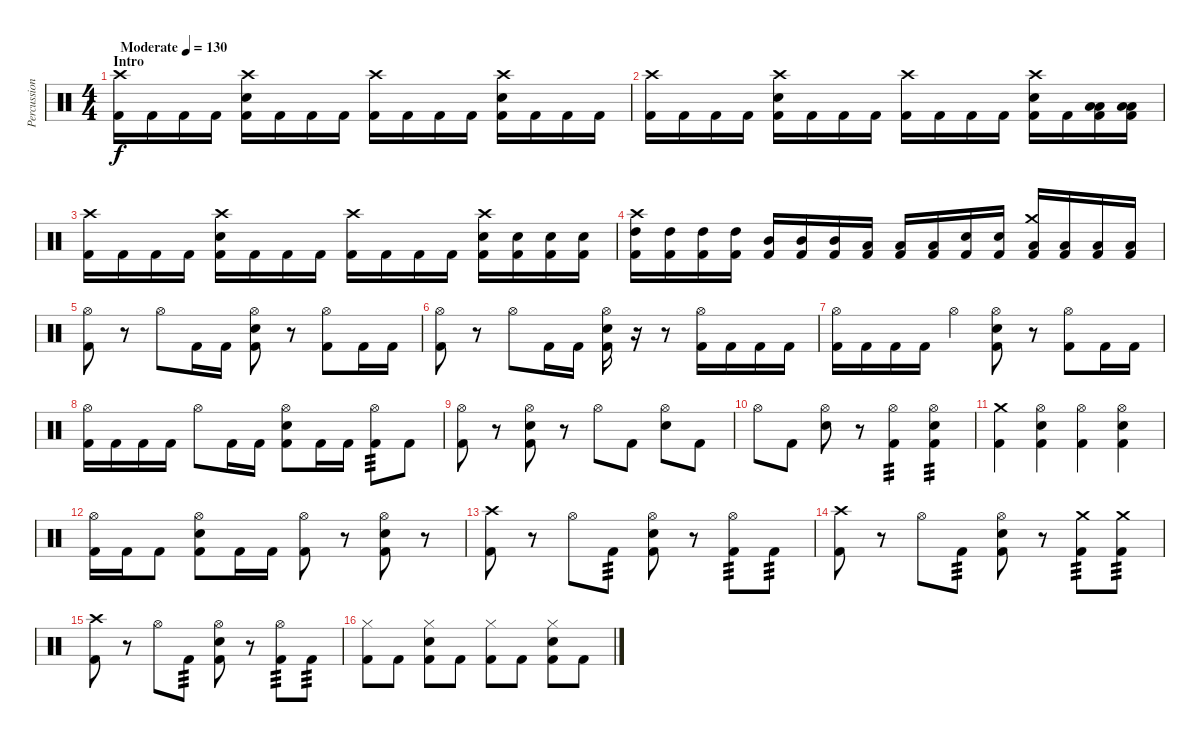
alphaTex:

\track ("Percussion" "Percussion") {instrument percussion}
\staff {score}
\articulation defaults
\ts (4 4)
\section ("" "Intro")
\tempo (130 "Moderate")
\clef neutral
\ks c
("Crash high (hit)" "Kick (hit) 2").16{dy f} "Kick (hit) 2".16 "Kick (hit) 2".16 "Kick (hit) 2".16 ("Crash high (hit)" "Electric Snare (hit)" "Kick (hit) 2").16 "Kick (hit) 2".16 "Kick (hit) 2".16 "Kick (hit) 2".16 ("Crash high (hit)" "Kick (hit) 2").16 "Kick (hit) 2".16 "Kick (hit) 2".16 "Kick (hit) 2".16 ("Crash high (hit)" "Electric Snare (hit)" "Kick (hit) 2").16 "Kick (hit) 2".16 "Kick (hit) 2".16 "Kick (hit) 2".16 |
("Crash high (hit)" "Kick (hit) 2").16 "Kick (hit) 2".16 "Kick (hit) 2".16 "Kick (hit) 2".16 ("Crash high (hit)" "Electric Snare (hit)" "Kick (hit) 2").16 "Kick (hit) 2".16 "Kick (hit) 2".16 "Kick (hit) 2".16 ("Crash high (hit)" "Kick (hit) 2").16 "Kick (hit) 2".16 "Kick (hit) 2".16 "Kick (hit) 2".16 ("Crash high (hit)" "Electric Snare (hit)" "Kick (hit) 2").16 "Kick (hit) 2".16 ("Low Tom (hit)" "Low Tom (hit)" "Kick (hit) 2").16 ("Low Tom (hit)" "Low Tom (hit)" "Kick (hit) 2").16 |
("Crash high (hit)" "Kick (hit) 2").16 "Kick (hit) 2".16 "Kick (hit) 2".16 "Kick (hit) 2".16 ("Crash high (hit)" "Electric Snare (hit)" "Kick (hit) 2").16 "Kick (hit) 2".16 "Kick (hit) 2".16 "Kick (hit) 2".16 ("Crash high (hit)" "Kick (hit) 2").16 "Kick (hit) 2".16 "Kick (hit) 2".16 "Kick (hit) 2".16 ("Crash high (hit)" "Electric Snare (hit)" "Kick (hit) 2").16 ("Electric Snare (hit)" "Kick (hit) 2").16 ("Electric Snare (hit)" "Kick (hit) 2").16 ("Electric Snare (hit)" "Kick (hit) 2").16 |
("Crash high (hit)" "High Tom (hit)" "Kick (hit) 2").16 ("High Tom (hit)" "Kick (hit) 2").16 ("High Tom (hit)" "Kick (hit) 2").16 ("High Tom (hit)" "Kick (hit) 2").16 ("Mid Tom (hit)" "Kick (hit) 2").16 ("Mid Tom (hit)" "Kick (hit) 2").16 ("Mid Tom (hit)" "Kick (hit) 2").16 ("Low Tom (hit)" "Kick (hit) 2").16 ("Low Tom (hit)" "Kick (hit) 2").16 ("Low Tom (hit)" "Kick (hit) 2").16 ("Electric Snare (hit)" "Kick (hit) 2").16 ("Electric Snare (hit)" "Kick (hit) 2").16 ("Crash medium (hit)" "Low Floor Tom (hit)" "Kick (hit) 2").16 ("Low Floor Tom (hit)" "Kick (hit) 2").16 ("Low Floor Tom (hit)" "Kick (hit) 2").16 ("Low Floor Tom (hit)" "Kick (hit) 2").16 |
("Hi-Hat (open)" "Kick (hit) 2").8 r.8 "Hi-Hat (open)".8 "Kick (hit) 2".16 "Kick (hit) 2".16 ("Hi-Hat (open)" "Electric Snare (hit)" "Kick (hit) 2").8 r.8 ("Hi-Hat (open)" "Kick (hit) 2").8 "Kick (hit) 2".16 "Kick (hit) 2".16 |
("Hi-Hat (open)" "Kick (hit) 2").8 r.8 "Hi-Hat (open)".8 "Kick (hit) 2".16 "Kick (hit) 2".16 ("Hi-Hat (open)" "Electric Snare (hit)" "Kick (hit) 2").16 r.16 r.8 ("Hi-Hat (open)" "Kick (hit) 2").16 "Kick (hit) 2".16 "Kick (hit) 2".16 "Kick (hit) 2".16 |
("Hi-Hat (open)" "Kick (hit) 2").16 "Kick (hit) 2".16 "Kick (hit) 2".16 "Kick (hit) 2".16 "Hi-Hat (open)".4 ("Hi-Hat (open)" "Electric Snare (hit)" "Kick (hit) 2").8 r.8 ("Hi-Hat (open)" "Kick (hit) 2").8 "Kick (hit) 2".16 "Kick (hit) 2".16 |
("Hi-Hat (open)" "Kick (hit) 2").16 "Kick (hit) 2".16 "Kick (hit) 2".16 "Kick (hit) 2".16 "Hi-Hat (open)".8 "Kick (hit) 2".16 "Kick (hit) 2".16 ("Hi-Hat (open)" "Electric Snare (hit)" "Kick (hit) 2").8 "Kick (hit) 2".16 "Kick (hit) 2".16 ("Hi-Hat (open)" "Kick (hit) 2").8{tp 3} "Kick (hit) 2".8 |
("Hi-Hat (open)" "Kick (hit) 2").8 r.8 ("Hi-Hat (open)" "Electric Snare (hit)" "Kick (hit) 2").8 r.8 "Hi-Hat (open)".8 "Kick (hit) 2".8 ("Hi-Hat (open)" "Electric Snare (hit)").8 "Kick (hit) 2".8 |
"Hi-Hat (open)".8 "Kick (hit) 2".8 ("Hi-Hat (open)" "Electric Snare (hit)").8 r.8 ("Hi-Hat (open)" "Kick (hit) 2").4{tp 3} ("Hi-Hat (open)" "Electric Snare (hit)" "Kick (hit) 2").4{tp 3} |
("Crash medium (hit)" "Kick (hit) 2").4 ("Hi-Hat (open)" "Electric Snare (hit)" "Kick (hit) 2").4 ("Hi-Hat (open)" "Kick (hit) 2").4 ("Hi-Hat (open)" "Electric Snare (hit)" "Kick (hit) 2").4 |
("Hi-Hat (open)" "Kick (hit) 2").16 "Kick (hit) 2".16 "Kick (hit) 2".8 ("Hi-Hat (open)" "Electric Snare (hit)" "Kick (hit) 2").8 "Kick (hit) 2".16 "Kick (hit) 2".16 ("Hi-Hat (open)" "Kick (hit) 2").8 r.8 ("Hi-Hat (open)" "Electric Snare (hit)" "Kick (hit) 2").8 r.8 |
("Crash high (hit)" "Kick (hit) 2").8 r.8 "Hi-Hat (open)".8 "Kick (hit) 2".8{tp 3} ("Hi-Hat (open)" "Electric Snare (hit)" "Kick (hit) 2").8 r.8 ("Hi-Hat (open)" "Kick (hit) 2").8{tp 3} "Kick (hit) 2".8{tp 3} |
("Crash high (hit)" "Kick (hit) 2").8 r.8 "Hi-Hat (open)".8 "Kick (hit) 2".8{tp 3} ("Hi-Hat (open)" "Electric Snare (hit)" "Kick (hit) 2").8 r.8 ("Crash medium (hit)" "Kick (hit) 2").8{tp 3} ("Crash medium (hit)" "Kick (hit) 2").8{tp 3} |
("Crash high (hit)" "Kick (hit) 2").8 r.8 "Hi-Hat (open)".8 "Kick (hit) 2".8{tp 3} ("Hi-Hat (open)" "Electric Snare (hit)" "Kick (hit) 2").8 r.8 ("Hi-Hat (open)" "Kick (hit) 2").8{tp 3} "Kick (hit) 2".8{tp 3} |
("Hi-Hat (closed)" "Kick (hit) 2").8 "Kick (hit) 2".8 ("Hi-Hat (closed)" "Electric Snare (hit)" "Kick (hit) 2").8 "Kick (hit) 2".8 ("Hi-Hat (closed)" "Kick (hit) 2").8 "Kick (hit) 2".8 ("Hi-Hat (closed)" "Electric Snare (hit)" "Kick (hit) 2").8 "Kick (hit) 2".8
